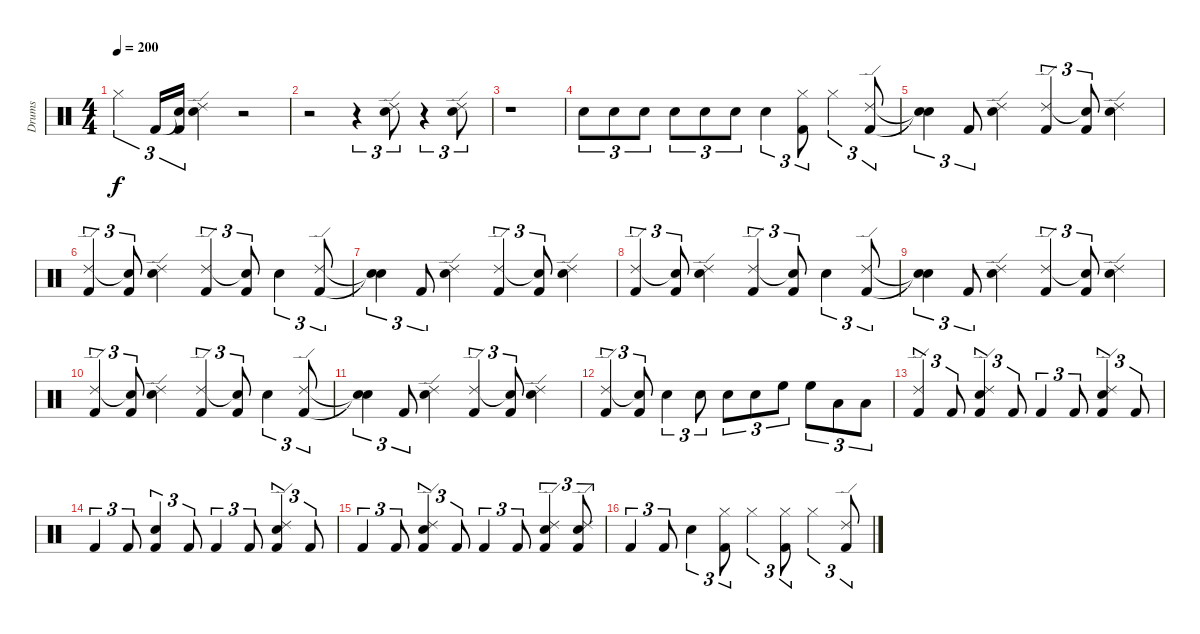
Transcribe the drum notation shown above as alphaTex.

\track ("Drums" "Drums") {instrument percussion}
\staff {score}
\articulation defaults
\ts (4 4)
\tempo 200
\clef neutral
\ks c "Hi-Hat (closed)".4{tu (3 2) dy f} "Kick (hit) 2".16{tu (3 2)}
("Snare (hit)"{t} "Kick (hit) 2").16{tu (3 2)} ("Ride (edge) 2" "Snare (hit) 2").4 r.2 |
r.2 r.4{tu (3 2)} ("Ride (edge) 2" "Snare (hit) 2").8{tu (3 2)} r.4{tu (3 2)} ("Ride (edge) 2" "Snare (hit) 2").8{tu (3 2)} |
r.1 |
"Snare (hit) 2".8{tu (3 2)} "Snare (hit) 2".8{tu (3 2)} "Snare (hit) 2".8{tu (3 2)} "Snare (hit) 2".8{tu (3 2)} "Snare (hit) 2".8{tu (3 2)} "Snare (hit) 2".8{tu (3 2)} "Snare (hit) 2".4{tu (3 2)} ("Hi-Hat (closed)" "Kick (hit) 2").8{tu (3 2)} "Hi-Hat (closed)".4{tu (3 2)} ("Ride (edge) 2" "Kick (hit) 2").8{tu (3 2)} |
("Snare (hit)"{t} "Snare (hit)"{t}).4{tu (3 2)} "Kick (hit) 2".8{tu (3 2)} ("Ride (edge) 2" "Snare (hit) 2").4 ("Ride (edge) 2" "Kick (hit) 2").4{tu (3 2)} ("Snare (hit)"{t} "Kick (hit) 2").8{tu (3 2)} ("Ride (edge) 2" "Snare (hit) 2").4 |
("Ride (edge) 2" "Kick (hit) 2").4{tu (3 2)} ("Snare (hit)"{t} "Kick (hit) 2").8{tu (3 2)} ("Ride (edge) 2" "Snare (hit) 2").4 ("Ride (edge) 2" "Kick (hit) 2").4{tu (3 2)} ("Snare (hit)"{t} "Kick (hit) 2").8{tu (3 2)} "Snare (hit) 2".4{tu (3 2)} ("Ride (edge) 2" "Kick (hit) 2").8{tu (3 2)} |
("Snare (hit)"{t} "Snare (hit)"{t}).4{tu (3 2)} "Kick (hit) 2".8{tu (3 2)} ("Ride (edge) 2" "Snare (hit) 2").4 ("Ride (edge) 2" "Kick (hit) 2").4{tu (3 2)} ("Snare (hit)"{t} "Kick (hit) 2").8{tu (3 2)} ("Ride (edge) 2" "Snare (hit) 2").4 |
("Ride (edge) 2" "Kick (hit) 2").4{tu (3 2)} ("Snare (hit)"{t} "Kick (hit) 2").8{tu (3 2)} ("Ride (edge) 2" "Snare (hit) 2").4 ("Ride (edge) 2" "Kick (hit) 2").4{tu (3 2)} ("Snare (hit)"{t} "Kick (hit) 2").8{tu (3 2)} "Snare (hit) 2".4{tu (3 2)} ("Ride (edge) 2" "Kick (hit) 2").8{tu (3 2)} |
("Snare (hit)"{t} "Snare (hit)"{t}).4{tu (3 2)} "Kick (hit) 2".8{tu (3 2)} ("Ride (edge) 2" "Snare (hit) 2").4 ("Ride (edge) 2" "Kick (hit) 2").4{tu (3 2)} ("Snare (hit)"{t} "Kick (hit) 2").8{tu (3 2)} ("Ride (edge) 2" "Snare (hit) 2").4 |
("Ride (edge) 2" "Kick (hit) 2").4{tu (3 2)} ("Snare (hit)"{t} "Kick (hit) 2").8{tu (3 2)} ("Ride (edge) 2" "Snare (hit) 2").4 ("Ride (edge) 2" "Kick (hit) 2").4{tu (3 2)} ("Snare (hit)"{t} "Kick (hit) 2").8{tu (3 2)} "Snare (hit) 2".4{tu (3 2)} ("Ride (edge) 2" "Kick (hit) 2").8{tu (3 2)} |
("Snare (hit)"{t} "Snare (hit)"{t}).4{tu (3 2)} "Kick (hit) 2".8{tu (3 2)} ("Ride (edge) 2" "Snare (hit) 2").4 ("Ride (edge) 2" "Kick (hit) 2").4{tu (3 2)} ("Snare (hit)"{t} "Kick (hit) 2").8{tu (3 2)} ("Ride (edge) 2" "Snare (hit) 2").4 |
("Ride (edge) 2" "Kick (hit) 2").4{tu (3 2)} ("Snare (hit)"{t} "Kick (hit) 2").8{tu (3 2)} "Snare (hit) 2".4{tu (3 2)} "Snare (hit) 2".8{tu (3 2)} "Snare (hit) 2".8{tu (3 2)} "Snare (hit) 2".8{tu (3 2)} "High Floor Tom (hit)".8{tu (3 2)} "High Floor Tom (hit)".8{tu (3 2)} "Low Tom (hit)".8{tu (3 2)} "Low Tom (hit)".8{tu (3 2)} |
("Ride (edge) 2" "Kick (hit) 2").4{tu (3 2)} "Kick (hit) 2".8{tu (3 2)} ("Ride (edge) 2" "Snare (hit) 2" "Kick (hit) 2").4{tu (3 2)} "Kick (hit) 2".8{tu (3 2)} "Kick (hit) 2".4{tu (3 2)} "Kick (hit) 2".8{tu (3 2)} ("Ride (edge) 2" "Snare (hit) 2" "Kick (hit) 2").4{tu (3 2)} "Kick (hit) 2".8{tu (3 2)} |
"Kick (hit) 2".4{tu (3 2)} "Kick (hit) 2".8{tu (3 2)} ("Snare (hit) 2" "Kick (hit) 2").4{tu (3 2)} "Kick (hit) 2".8{tu (3 2)} "Kick (hit) 2".4{tu (3 2)} "Kick (hit) 2".8{tu (3 2)} ("Ride (edge) 2" "Snare (hit) 2" "Kick (hit) 2").4{tu (3 2)} "Kick (hit) 2".8{tu (3 2)} |
"Kick (hit) 2".4{tu (3 2)} "Kick (hit) 2".8{tu (3 2)} ("Ride (edge) 2" "Snare (hit) 2" "Kick (hit) 2").4{tu (3 2)} "Kick (hit) 2".8{tu (3 2)} "Kick (hit) 2".4{tu (3 2)} "Kick (hit) 2".8{tu (3 2)} ("Ride (edge) 2" "Snare (hit) 2" "Kick (hit) 2").4{tu (3 2)} ("Ride (edge) 2" "Snare (hit) 2" "Kick (hit) 2").8{tu (3 2)} |
"Kick (hit) 2".4{tu (3 2)} "Kick (hit) 2".8{tu (3 2)} "Snare (hit) 2".4{tu (3 2)} ("Hi-Hat (closed)" "Kick (hit) 2").8{tu (3 2)} "Hi-Hat (closed)".4{tu (3 2)} ("Hi-Hat (closed)" "Kick (hit) 2").8{tu (3 2)} "Hi-Hat (closed)".4{tu (3 2)} ("Ride (edge) 2" "Kick (hit) 2").8{tu (3 2)}
